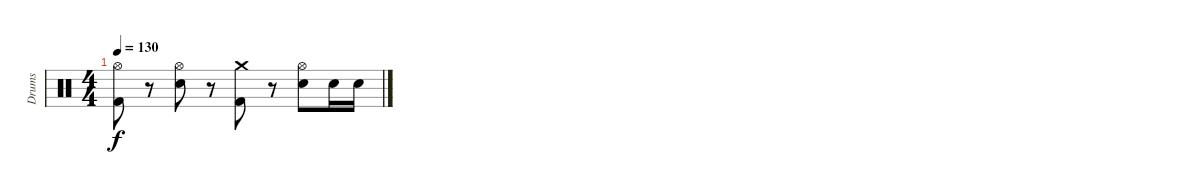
\track ("Drums" "Drums") {instrument percussion}
\staff {score}
\articulation defaults
\ts (4 4)
\tempo 130
\clef neutral
\ks c
("Hi-Hat (open)" "Kick (hit) 2").8{dy f} r.8 ("Hi-Hat (open)" "Electric Snare (hit)").8 r.8 ("Crash medium (hit)" "Kick (hit) 2").8 r.8 ("Hi-Hat (open)" "Electric Snare (hit)").8 "Electric Snare (hit)".16 "Electric Snare (hit)".16
